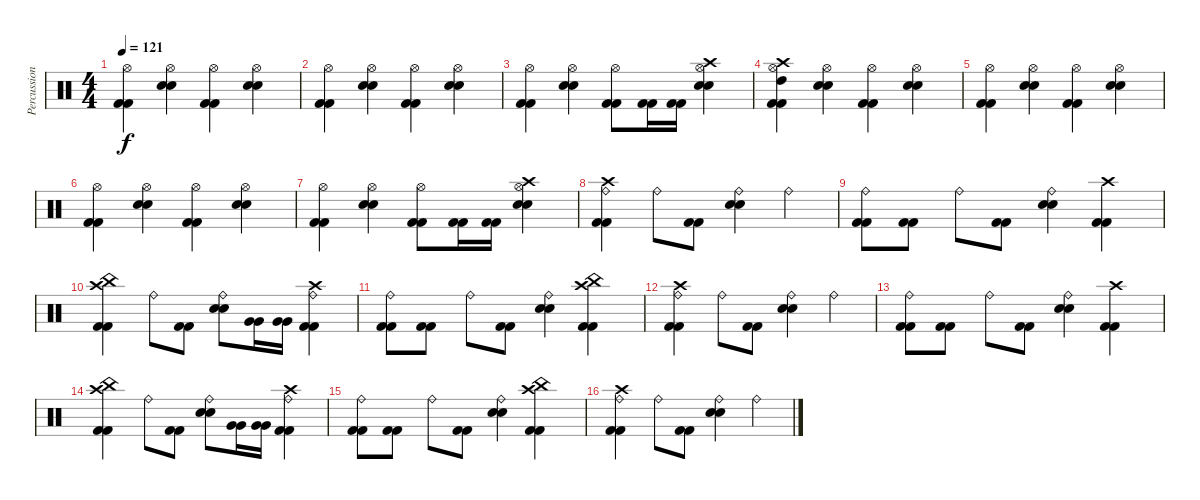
\track ("Percussion" "Percussion") {instrument percussion}
\staff {score}
\articulation defaults
\ts (4 4)
\tempo 121
\clef neutral
\ks c
("Hi-Hat (open)" "Kick (hit) 2" "Kick (hit) 2").4{dy f} ("Hi-Hat (open)" "Electric Snare (hit)" "Electric Snare (hit)").4 ("Hi-Hat (open)" "Kick (hit) 2" "Kick (hit) 2").4 ("Hi-Hat (open)" "Electric Snare (hit)" "Electric Snare (hit)").4 |
("Hi-Hat (open)" "Kick (hit) 2" "Kick (hit) 2").4 ("Hi-Hat (open)" "Electric Snare (hit)" "Electric Snare (hit)").4 ("Hi-Hat (open)" "Kick (hit) 2" "Kick (hit) 2").4 ("Hi-Hat (open)" "Electric Snare (hit)" "Electric Snare (hit)").4 |
("Hi-Hat (open)" "Kick (hit) 2" "Kick (hit) 2").4 ("Hi-Hat (open)" "Electric Snare (hit)" "Electric Snare (hit)").4 ("Hi-Hat (open)" "Kick (hit) 2" "Kick (hit) 2").8 ("Kick (hit) 2" "Kick (hit) 2").16 ("Kick (hit) 2" "Kick (hit) 2").16 ("Crash high (hit)" "Hi-Hat (open)" "Electric Snare (hit)" "Electric Snare (hit)").4 |
("Crash high (hit)" "High Tom (hit)" "Hi-Hat (open)" "Kick (hit) 2" "Kick (hit) 2").4 ("Hi-Hat (open)" "Electric Snare (hit)" "Electric Snare (hit)").4 ("Hi-Hat (open)" "Kick (hit) 2" "Kick (hit) 2").4 ("Hi-Hat (open)" "Electric Snare (hit)" "Electric Snare (hit)").4 |
("Hi-Hat (open)" "Kick (hit) 2" "Kick (hit) 2").4 ("Hi-Hat (open)" "Electric Snare (hit)" "Electric Snare (hit)").4 ("Hi-Hat (open)" "Kick (hit) 2" "Kick (hit) 2").4 ("Hi-Hat (open)" "Electric Snare (hit)" "Electric Snare (hit)").4 |
("Hi-Hat (open)" "Kick (hit) 2" "Kick (hit) 2").4 ("Hi-Hat (open)" "Electric Snare (hit)" "Electric Snare (hit)").4 ("Hi-Hat (open)" "Kick (hit) 2" "Kick (hit) 2").4 ("Hi-Hat (open)" "Electric Snare (hit)" "Electric Snare (hit)").4 |
("Hi-Hat (open)" "Kick (hit) 2" "Kick (hit) 2").4 ("Hi-Hat (open)" "Electric Snare (hit)" "Electric Snare (hit)").4 ("Hi-Hat (open)" "Kick (hit) 2" "Kick (hit) 2").8 ("Kick (hit) 2" "Kick (hit) 2").16 ("Kick (hit) 2" "Kick (hit) 2").16 ("Crash high (hit)" "Hi-Hat (open)" "Electric Snare (hit)" "Electric Snare (hit)").4 |
("Crash high (hit)" "Ride (bell)" "Kick (hit) 2" "Kick (hit) 2").4 "Ride (bell)".8 ("Kick (hit) 2" "Kick (hit) 2").8 ("Ride (bell)" "Electric Snare (hit)" "Electric Snare (hit)").4 "Ride (bell)".4 |
("Ride (bell)" "Kick (hit) 2" "Kick (hit) 2").8 ("Kick (hit) 2" "Kick (hit) 2").8 "Ride (bell)".8 ("Kick (hit) 2" "Kick (hit) 2").8 ("Ride (bell)" "Electric Snare (hit)" "Electric Snare (hit)").4 ("Crash high (hit)" "Kick (hit) 2" "Kick (hit) 2").4 |
("China (hit)" "Crash high (hit)" "Kick (hit) 2" "Kick (hit) 2").4 "Ride (bell)".8 ("Kick (hit) 2" "Kick (hit) 2").8 ("Ride (bell)" "Electric Snare (hit)" "Electric Snare (hit)").8 ("Very Low Tom (hit)" "Very Low Tom (hit)").16 ("Very Low Tom (hit)" "Very Low Tom (hit)").16 ("Crash high (hit)" "Ride (bell)" "Kick (hit) 2" "Kick (hit) 2").4 |
("Ride (bell)" "Kick (hit) 2" "Kick (hit) 2").8 ("Kick (hit) 2" "Kick (hit) 2").8 "Ride (bell)".8 ("Kick (hit) 2" "Kick (hit) 2").8 ("Ride (bell)" "Electric Snare (hit)" "Electric Snare (hit)").4 ("Crash high (hit)" "China (hit)" "Kick (hit) 2" "Kick (hit) 2").4 |
("Crash high (hit)" "Ride (bell)" "Kick (hit) 2" "Kick (hit) 2").4 "Ride (bell)".8 ("Kick (hit) 2" "Kick (hit) 2").8 ("Ride (bell)" "Electric Snare (hit)" "Electric Snare (hit)").4 "Ride (bell)".4 |
("Ride (bell)" "Kick (hit) 2" "Kick (hit) 2").8 ("Kick (hit) 2" "Kick (hit) 2").8 "Ride (bell)".8 ("Kick (hit) 2" "Kick (hit) 2").8 ("Ride (bell)" "Electric Snare (hit)" "Electric Snare (hit)").4 ("Crash high (hit)" "Kick (hit) 2" "Kick (hit) 2").4 |
("China (hit)" "Crash high (hit)" "Kick (hit) 2" "Kick (hit) 2").4 "Ride (bell)".8 ("Kick (hit) 2" "Kick (hit) 2").8 ("Ride (bell)" "Electric Snare (hit)" "Electric Snare (hit)").8 ("Very Low Tom (hit)" "Very Low Tom (hit)").16 ("Very Low Tom (hit)" "Very Low Tom (hit)").16 ("Crash high (hit)" "Ride (bell)" "Kick (hit) 2" "Kick (hit) 2").4 |
("Ride (bell)" "Kick (hit) 2" "Kick (hit) 2").8 ("Kick (hit) 2" "Kick (hit) 2").8 "Ride (bell)".8 ("Kick (hit) 2" "Kick (hit) 2").8 ("Ride (bell)" "Electric Snare (hit)" "Electric Snare (hit)").4 ("Crash high (hit)" "China (hit)" "Kick (hit) 2" "Kick (hit) 2").4 |
("Crash high (hit)" "Ride (bell)" "Kick (hit) 2" "Kick (hit) 2").4 "Ride (bell)".8 ("Kick (hit) 2" "Kick (hit) 2").8 ("Ride (bell)" "Electric Snare (hit)" "Electric Snare (hit)").4 "Ride (bell)".4
